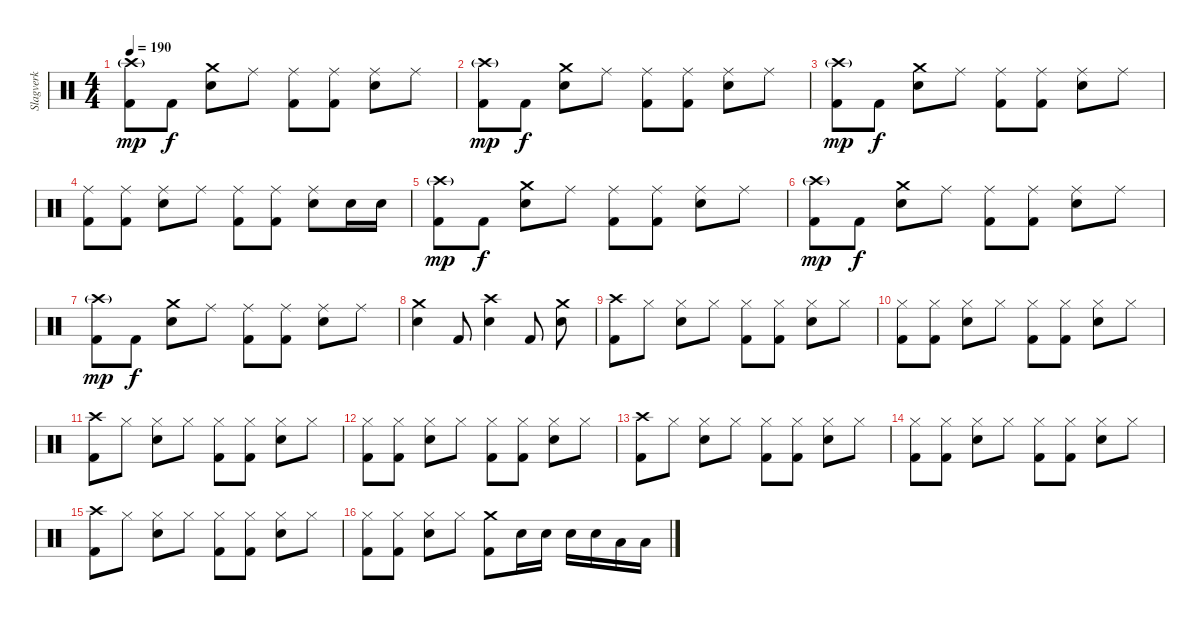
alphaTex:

\track ("Slagverk" "Slagverk") {instrument percussion}
\staff {score}
\articulation defaults
\ts (4 4)
\tempo 190
\clef neutral
\ks c
("Kick (hit) 2" "Crash high (hit)"{g}).8{dy mp} "Kick (hit) 2".8{dy f} ("Electric Snare (hit)" "Crash medium (hit)").8 "Ride (middle)".8 ("Kick (hit) 2" "Ride (middle)").8 ("Kick (hit) 2" "Ride (middle)").8 ("Electric Snare (hit)" "Ride (middle)").8 "Ride (middle)".8 |
("Kick (hit) 2" "Crash high (hit)"{g}).8{dy mp} "Kick (hit) 2".8{dy f} ("Electric Snare (hit)" "Crash medium (hit)").8 "Ride (middle)".8 ("Kick (hit) 2" "Ride (middle)").8 ("Kick (hit) 2" "Ride (middle)").8 ("Electric Snare (hit)" "Ride (middle)").8 "Ride (middle)".8 |
("Kick (hit) 2" "Crash high (hit)"{g}).8{dy mp} "Kick (hit) 2".8{dy f} ("Electric Snare (hit)" "Crash medium (hit)").8 "Ride (middle)".8 ("Kick (hit) 2" "Ride (middle)").8 ("Kick (hit) 2" "Ride (middle)").8 ("Electric Snare (hit)" "Ride (middle)").8 "Ride (middle)".8 |
("Kick (hit) 2" "Ride (middle)").8 ("Kick (hit) 2" "Ride (middle)").8 ("Electric Snare (hit)" "Ride (middle)").8 "Ride (middle)".8 ("Kick (hit) 2" "Ride (middle)").8 ("Kick (hit) 2" "Ride (middle)").8 ("Electric Snare (hit)" "Ride (middle)").8 "Electric Snare (hit)".16 "Electric Snare (hit)".16 |
("Kick (hit) 2" "Crash high (hit)"{g}).8{dy mp} "Kick (hit) 2".8{dy f} ("Electric Snare (hit)" "Crash medium (hit)").8 "Ride (middle)".8 ("Kick (hit) 2" "Ride (middle)").8 ("Kick (hit) 2" "Ride (middle)").8 ("Electric Snare (hit)" "Ride (middle)").8 "Ride (middle)".8 |
("Kick (hit) 2" "Crash high (hit)"{g}).8{dy mp} "Kick (hit) 2".8{dy f} ("Electric Snare (hit)" "Crash medium (hit)").8 "Ride (middle)".8 ("Kick (hit) 2" "Ride (middle)").8 ("Kick (hit) 2" "Ride (middle)").8 ("Electric Snare (hit)" "Ride (middle)").8 "Ride (middle)".8 |
("Kick (hit) 2" "Crash high (hit)"{g}).8{dy mp} "Kick (hit) 2".8{dy f} ("Electric Snare (hit)" "Crash medium (hit)").8 "Ride (middle)".8 ("Kick (hit) 2" "Ride (middle)").8 ("Kick (hit) 2" "Ride (middle)").8 ("Electric Snare (hit)" "Ride (middle)").8 "Ride (middle)".8 |
("Electric Snare (hit)" "Crash medium (hit)").4 "Kick (hit) 2".8 ("Electric Snare (hit)" "Crash high (hit)").4 "Kick (hit) 2".8 ("Crash medium (hit)" "Electric Snare (hit)").8 |
("Kick (hit) 2" "Crash high (hit)").8 "Hi-Hat (closed)".8 ("Electric Snare (hit)" "Hi-Hat (closed)").8 "Hi-Hat (closed)".8 ("Kick (hit) 2" "Hi-Hat (closed)").8 ("Kick (hit) 2" "Hi-Hat (closed)").8 ("Electric Snare (hit)" "Hi-Hat (closed)").8 "Hi-Hat (closed)".8 |
("Kick (hit) 2" "Hi-Hat (closed)").8 ("Kick (hit) 2" "Hi-Hat (closed)").8 ("Electric Snare (hit)" "Hi-Hat (closed)").8 "Hi-Hat (closed)".8 ("Kick (hit) 2" "Hi-Hat (closed)").8 ("Kick (hit) 2" "Hi-Hat (closed)").8 ("Electric Snare (hit)" "Hi-Hat (closed)").8 "Hi-Hat (closed)".8 |
("Kick (hit) 2" "Crash high (hit)").8 "Hi-Hat (closed)".8 ("Electric Snare (hit)" "Hi-Hat (closed)").8 "Hi-Hat (closed)".8 ("Kick (hit) 2" "Hi-Hat (closed)").8 ("Kick (hit) 2" "Hi-Hat (closed)").8 ("Electric Snare (hit)" "Hi-Hat (closed)").8 "Hi-Hat (closed)".8 |
("Kick (hit) 2" "Hi-Hat (closed)").8 ("Kick (hit) 2" "Hi-Hat (closed)").8 ("Electric Snare (hit)" "Hi-Hat (closed)").8 "Hi-Hat (closed)".8 ("Kick (hit) 2" "Hi-Hat (closed)").8 ("Kick (hit) 2" "Hi-Hat (closed)").8 ("Electric Snare (hit)" "Hi-Hat (closed)").8 "Hi-Hat (closed)".8 |
("Kick (hit) 2" "Crash high (hit)").8 "Hi-Hat (closed)".8 ("Electric Snare (hit)" "Hi-Hat (closed)").8 "Hi-Hat (closed)".8 ("Kick (hit) 2" "Hi-Hat (closed)").8 ("Kick (hit) 2" "Hi-Hat (closed)").8 ("Electric Snare (hit)" "Hi-Hat (closed)").8 "Hi-Hat (closed)".8 |
("Kick (hit) 2" "Hi-Hat (closed)").8 ("Kick (hit) 2" "Hi-Hat (closed)").8 ("Electric Snare (hit)" "Hi-Hat (closed)").8 "Hi-Hat (closed)".8 ("Kick (hit) 2" "Hi-Hat (closed)").8 ("Kick (hit) 2" "Hi-Hat (closed)").8 ("Electric Snare (hit)" "Hi-Hat (closed)").8 "Hi-Hat (closed)".8 |
("Kick (hit) 2" "Crash high (hit)").8 "Hi-Hat (closed)".8 ("Electric Snare (hit)" "Hi-Hat (closed)").8 "Hi-Hat (closed)".8 ("Kick (hit) 2" "Hi-Hat (closed)").8 ("Kick (hit) 2" "Hi-Hat (closed)").8 ("Electric Snare (hit)" "Hi-Hat (closed)").8 "Hi-Hat (closed)".8 |
("Kick (hit) 2" "Hi-Hat (closed)").8 ("Kick (hit) 2" "Hi-Hat (closed)").8 ("Electric Snare (hit)" "Hi-Hat (closed)").8 "Hi-Hat (closed)".8 ("Kick (hit) 2" "Crash medium (hit)").8 "Electric Snare (hit)".16 "Electric Snare (hit)".16 "Electric Snare (hit)".16 "Electric Snare (hit)".16 "Low Tom (hit)".16 "Low Tom (hit)".16
